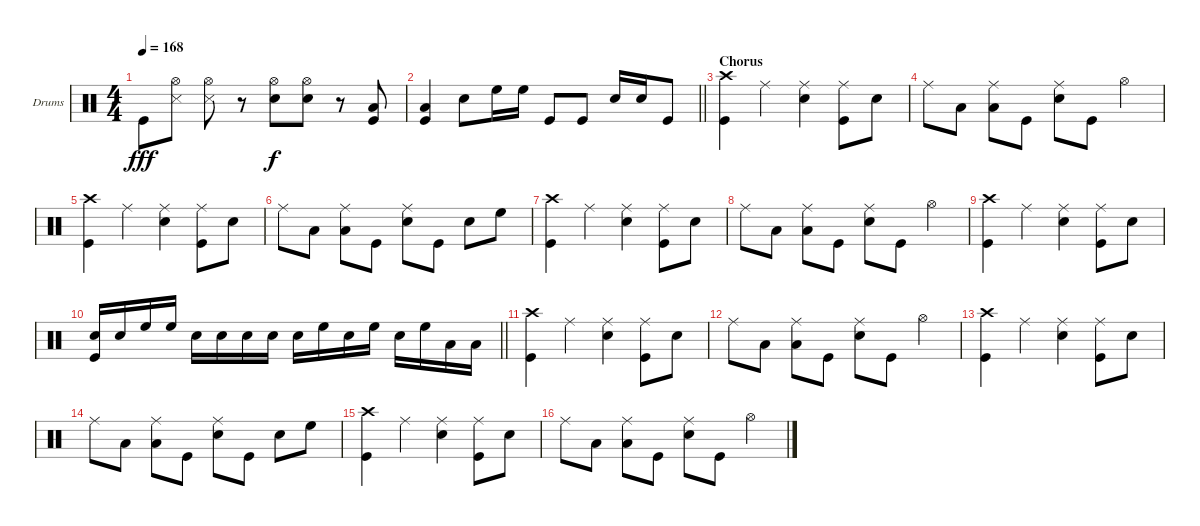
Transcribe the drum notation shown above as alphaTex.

\bracketExtendMode groupsimilarinstruments
\firstSystemTrackNameOrientation horizontal
\otherSystemsTrackNameOrientation horizontal
\track ("Drumkit" "Drums") {solo instrument percussion}
\staff {score}
\articulation defaults
\ts (4 4)
\tempo 168
\clef neutral
\ks c "Kick (hit)".8{dy fff}
("Hi-Hat (open)" "Snare (side stick) 3").8 ("Hi-Hat (open)" "Snare (side stick) 3").8 r.8 ("Hi-Hat (open)" "Snare (hit) 2").8{dy f} ("Hi-Hat (open)" "Snare (hit) 2").8 r.8 ("Kick (hit)" "Low Tom (hit)").8 |
\barLineRight lightlight
("Kick (hit)" "Low Tom (hit)").4 "Snare (hit) 2".8 "High Floor Tom (hit)".16 "High Floor Tom (hit)".16 "Kick (hit)".8 "Kick (hit)".8 "Snare (hit) 2".16 "Snare (hit) 2".16 "Kick (hit)".8 |
\section ("" "Chorus")
("Crash high (hit)" "Kick (hit)").4 "Ride (middle)".4 ("Ride (middle)" "Snare (hit) 2").4 ("Ride (middle)" "Kick (hit)").8 "Snare (hit) 2".8 |
"Ride (middle)".8 "Low Tom (hit)".8 ("Ride (middle)" "Low Tom (hit)").8 "Kick (hit)".8 ("Ride (middle)" "Snare (hit) 2").8 "Kick (hit)".8 "Hi-Hat (open)".4 |
("Crash high (hit)" "Kick (hit)").4 "Ride (middle)".4 ("Ride (middle)" "Snare (hit) 2").4 ("Ride (middle)" "Kick (hit)").8 "Snare (hit) 2".8 |
"Ride (middle)".8 "Low Tom (hit)".8 ("Ride (middle)" "Low Tom (hit)").8 "Kick (hit)".8 ("Ride (middle)" "Snare (hit) 2").8 "Kick (hit)".8 "Snare (hit) 2".8 "High Floor Tom (hit)".8 |
("Crash high (hit)" "Kick (hit)").4 "Ride (middle)".4 ("Ride (middle)" "Snare (hit) 2").4 ("Ride (middle)" "Kick (hit)").8 "Snare (hit) 2".8 |
"Ride (middle)".8 "Low Tom (hit)".8 ("Ride (middle)" "Low Tom (hit)").8 "Kick (hit)".8 ("Ride (middle)" "Snare (hit) 2").8 "Kick (hit)".8 "Hi-Hat (open)".4 |
("Crash high (hit)" "Kick (hit)").4 "Ride (middle)".4 ("Ride (middle)" "Snare (hit) 2").4 ("Ride (middle)" "Kick (hit)").8 "Snare (hit) 2".8 |
\barLineRight lightlight
("Snare (hit) 2" "Kick (hit)").16 "Snare (hit) 2".16 "High Floor Tom (hit)".16 "High Floor Tom (hit)".16 "Snare (hit) 2".16 "Snare (hit) 2".16 "Snare (hit) 2".16 "Snare (hit) 2".16 "Snare (hit) 2".16 "High Floor Tom (hit)".16 "Snare (hit) 2".16 "High Floor Tom (hit)".16 "Snare (hit) 2".16 "High Floor Tom (hit)".16 "Low Tom (hit)".16 "Low Tom (hit)".16 |
\section ("" "")
("Crash high (hit)" "Kick (hit)").4 "Ride (middle)".4 ("Ride (middle)" "Snare (hit) 2").4 ("Ride (middle)" "Kick (hit)").8 "Snare (hit) 2".8 |
"Ride (middle)".8 "Low Tom (hit)".8 ("Ride (middle)" "Low Tom (hit)").8 "Kick (hit)".8 ("Ride (middle)" "Snare (hit) 2").8 "Kick (hit)".8 "Hi-Hat (open)".4 |
("Crash high (hit)" "Kick (hit)").4 "Ride (middle)".4 ("Ride (middle)" "Snare (hit) 2").4 ("Ride (middle)" "Kick (hit)").8 "Snare (hit) 2".8 |
"Ride (middle)".8 "Low Tom (hit)".8 ("Ride (middle)" "Low Tom (hit)").8 "Kick (hit)".8 ("Ride (middle)" "Snare (hit) 2").8 "Kick (hit)".8 "Snare (hit) 2".8 "High Floor Tom (hit)".8 |
("Crash high (hit)" "Kick (hit)").4 "Ride (middle)".4 ("Ride (middle)" "Snare (hit) 2").4 ("Ride (middle)" "Kick (hit)").8 "Snare (hit) 2".8 |
"Ride (middle)".8 "Low Tom (hit)".8 ("Ride (middle)" "Low Tom (hit)").8 "Kick (hit)".8 ("Ride (middle)" "Snare (hit) 2").8 "Kick (hit)".8 "Hi-Hat (open)".4
